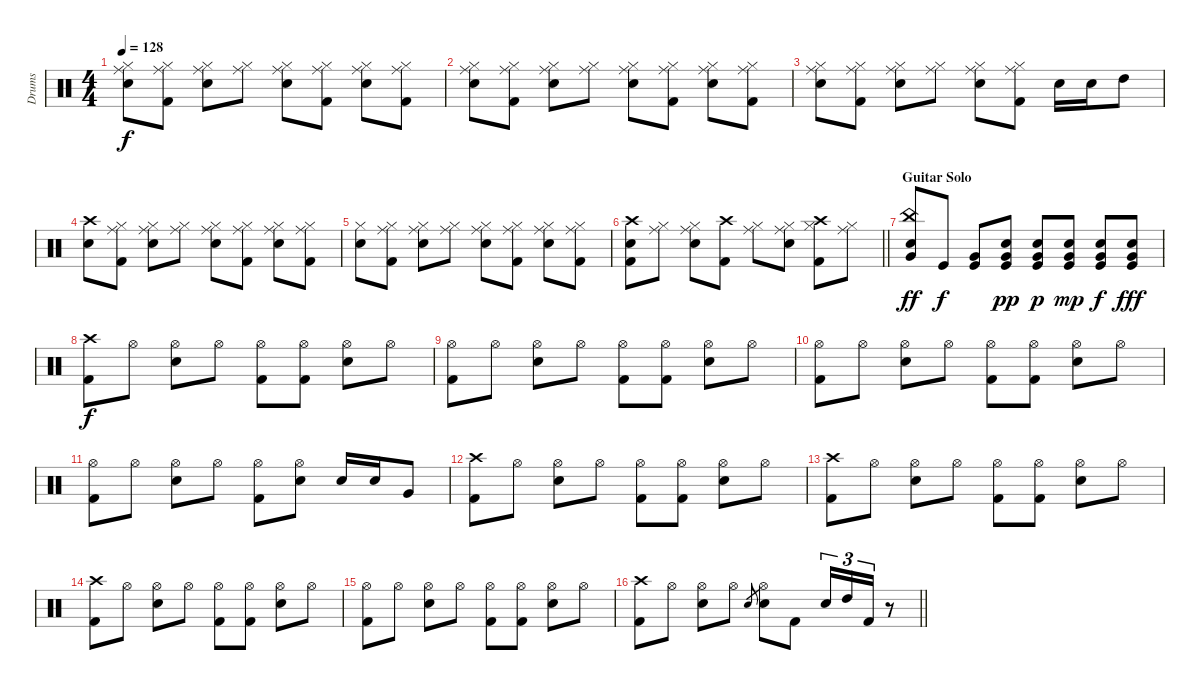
\track ("Drums" "Drums") {instrument percussion}
\staff {score}
\articulation defaults
\ts (4 4)
\tempo 128
\clef neutral
\ks c
("Ride (middle)" "Hi-Hat (closed)" "Snare (hit) 2").8{dy f} ("Ride (middle)" "Hi-Hat (closed)" "Kick (hit) 2").8 ("Ride (middle)" "Hi-Hat (closed)" "Snare (hit) 2").8 ("Ride (middle)" "Hi-Hat (closed)").8 ("Ride (middle)" "Hi-Hat (closed)" "Snare (hit) 2").8 ("Ride (middle)" "Hi-Hat (closed)" "Kick (hit) 2").8 ("Ride (middle)" "Hi-Hat (closed)" "Snare (hit) 2").8 ("Ride (middle)" "Hi-Hat (closed)" "Kick (hit) 2").8 |
("Hi-Hat (closed)" "Ride (middle)" "Snare (hit) 2").8 ("Ride (middle)" "Hi-Hat (closed)" "Kick (hit) 2").8 ("Ride (middle)" "Hi-Hat (closed)" "Snare (hit) 2").8 ("Ride (middle)" "Hi-Hat (closed)").8 ("Ride (middle)" "Hi-Hat (closed)" "Snare (hit) 2").8 ("Ride (middle)" "Hi-Hat (closed)" "Kick (hit) 2").8 ("Ride (middle)" "Hi-Hat (closed)" "Snare (hit) 2").8 ("Ride (middle)" "Hi-Hat (closed)" "Kick (hit) 2").8 |
("Hi-Hat (closed)" "Ride (middle)" "Snare (hit) 2").8 ("Hi-Hat (closed)" "Ride (middle)" "Kick (hit) 2").8 ("Hi-Hat (closed)" "Ride (middle)" "Snare (hit) 2").8 ("Hi-Hat (closed)" "Ride (middle)").8 ("Ride (middle)" "Hi-Hat (closed)" "Snare (hit) 2").8 ("Ride (middle)" "Hi-Hat (closed)" "Kick (hit) 2").8 "Snare (hit) 2".16 "Snare (hit) 2".16 "High Tom (hit)".8 |
("Crash high (hit)" "Snare (hit) 2").8 ("Ride (middle)" "Hi-Hat (closed)" "Kick (hit) 2").8 ("Ride (middle)" "Hi-Hat (closed)" "Snare (hit) 2").8 ("Ride (middle)" "Hi-Hat (closed)").8 ("Ride (middle)" "Hi-Hat (closed)" "Snare (hit) 2").8 ("Ride (middle)" "Hi-Hat (closed)" "Kick (hit) 2").8 ("Ride (middle)" "Hi-Hat (closed)" "Snare (hit) 2").8 ("Ride (middle)" "Hi-Hat (closed)" "Kick (hit) 2").8 |
("Hi-Hat (closed)" "Snare (hit) 2").8 ("Ride (middle)" "Hi-Hat (closed)" "Kick (hit) 2").8 ("Ride (middle)" "Hi-Hat (closed)" "Snare (hit) 2").8 ("Ride (middle)" "Hi-Hat (closed)").8 ("Ride (middle)" "Hi-Hat (closed)" "Snare (hit) 2").8 ("Ride (middle)" "Hi-Hat (closed)" "Kick (hit) 2").8 ("Ride (middle)" "Hi-Hat (closed)" "Snare (hit) 2").8 ("Ride (middle)" "Hi-Hat (closed)" "Kick (hit) 2").8 |
\barLineRight lightlight
("Crash high (hit)" "Snare (hit) 2" "Kick (hit) 2").8 ("Ride (middle)" "Hi-Hat (closed)").8 ("Ride (middle)" "Hi-Hat (closed)" "Snare (hit) 2").8 ("Crash high (hit)" "Kick (hit) 2").8 ("Ride (middle)" "Hi-Hat (closed)").8 ("Ride (middle)" "Hi-Hat (closed)" "Snare (hit) 2").8 ("Crash high (hit)" "Hi-Hat (closed)" "Kick (hit) 2").8 ("Ride (middle)" "Hi-Hat (closed)").8 |
\section ("" "Guitar Solo")
("China (hit)" "Very Low Tom (hit)" "Snare (hit) 2").8{dy ff} "Kick (hit)".8{dy f} ("Very Low Tom (hit)" "Kick (hit)").8 ("Snare (hit) 2" "Very Low Tom (hit)" "Kick (hit)").8{dy pp} ("Snare (hit) 2" "Very Low Tom (hit)" "Kick (hit)").8{dy p} ("Snare (hit) 2" "Very Low Tom (hit)" "Kick (hit)").8{dy mp} ("Snare (hit) 2" "Very Low Tom (hit)" "Kick (hit)").8{dy f} ("Snare (hit) 2" "Very Low Tom (hit)" "Kick (hit)").8{dy fff} |
("Crash high (hit)" "Kick (hit) 2").8{dy f} "Hi-Hat (open)".8 ("Hi-Hat (open)" "Snare (hit) 2").8 "Hi-Hat (open)".8 ("Hi-Hat (open)" "Kick (hit) 2").8 ("Hi-Hat (open)" "Kick (hit) 2").8 ("Hi-Hat (open)" "Snare (hit) 2").8 "Hi-Hat (open)".8 |
("Hi-Hat (open)" "Kick (hit) 2").8 "Hi-Hat (open)".8 ("Hi-Hat (open)" "Snare (hit) 2").8 "Hi-Hat (open)".8 ("Hi-Hat (open)" "Kick (hit) 2").8 ("Hi-Hat (open)" "Kick (hit) 2").8 ("Hi-Hat (open)" "Snare (hit) 2").8 "Hi-Hat (open)".8 |
("Hi-Hat (open)" "Kick (hit) 2").8 "Hi-Hat (open)".8 ("Hi-Hat (open)" "Snare (hit) 2").8 "Hi-Hat (open)".8 ("Hi-Hat (open)" "Kick (hit) 2").8 ("Hi-Hat (open)" "Kick (hit) 2").8 ("Hi-Hat (open)" "Snare (hit) 2").8 "Hi-Hat (open)".8 |
("Hi-Hat (open)" "Kick (hit) 2").8 "Hi-Hat (open)".8 ("Hi-Hat (open)" "Snare (hit) 2").8 "Hi-Hat (open)".8 ("Hi-Hat (open)" "Kick (hit) 2").8 ("Hi-Hat (open)" "Snare (hit) 2").8 "Snare (hit) 2".16 "Snare (hit) 2".16 "Very Low Tom (hit)".8 |
("Crash high (hit)" "Kick (hit) 2").8 "Hi-Hat (open)".8 ("Hi-Hat (open)" "Snare (hit) 2").8 "Hi-Hat (open)".8 ("Hi-Hat (open)" "Kick (hit) 2").8 ("Hi-Hat (open)" "Kick (hit) 2").8 ("Hi-Hat (open)" "Snare (hit) 2").8 "Hi-Hat (open)".8 |
("Crash high (hit)" "Kick (hit) 2").8 "Hi-Hat (open)".8 ("Hi-Hat (open)" "Snare (hit) 2").8 "Hi-Hat (open)".8 ("Hi-Hat (open)" "Kick (hit) 2").8{txt ""} ("Hi-Hat (open)" "Kick (hit) 2").8 ("Hi-Hat (open)" "Snare (hit) 2").8 "Hi-Hat (open)".8 |
("Crash high (hit)" "Kick (hit) 2").8 "Hi-Hat (open)".8 ("Hi-Hat (open)" "Snare (hit) 2").8 "Hi-Hat (open)".8 ("Hi-Hat (open)" "Kick (hit) 2").8 ("Hi-Hat (open)" "Kick (hit) 2").8 ("Hi-Hat (open)" "Snare (hit) 2").8 "Hi-Hat (open)".8 |
("Hi-Hat (open)" "Kick (hit) 2").8 "Hi-Hat (open)".8 ("Hi-Hat (open)" "Snare (hit) 2").8 "Hi-Hat (open)".8 ("Hi-Hat (open)" "Kick (hit) 2").8 ("Hi-Hat (open)" "Kick (hit) 2").8 ("Hi-Hat (open)" "Snare (hit) 2").8 "Hi-Hat (open)".8 |
\barLineRight lightlight
("Crash high (hit)" "Kick (hit) 2").8 "Hi-Hat (open)".8 ("Hi-Hat (open)" "Snare (hit) 2").8 "Hi-Hat (open)".8 "Snare (hit) 2".8{gr} ("Hi-Hat (open)" "Snare (hit) 2").8 "Kick (hit) 2".8 "Snare (hit) 2".16{tu (3 2)} "High Tom (hit)".16{tu (3 2)} "Kick (hit) 2".16{tu (3 2)} r.8
